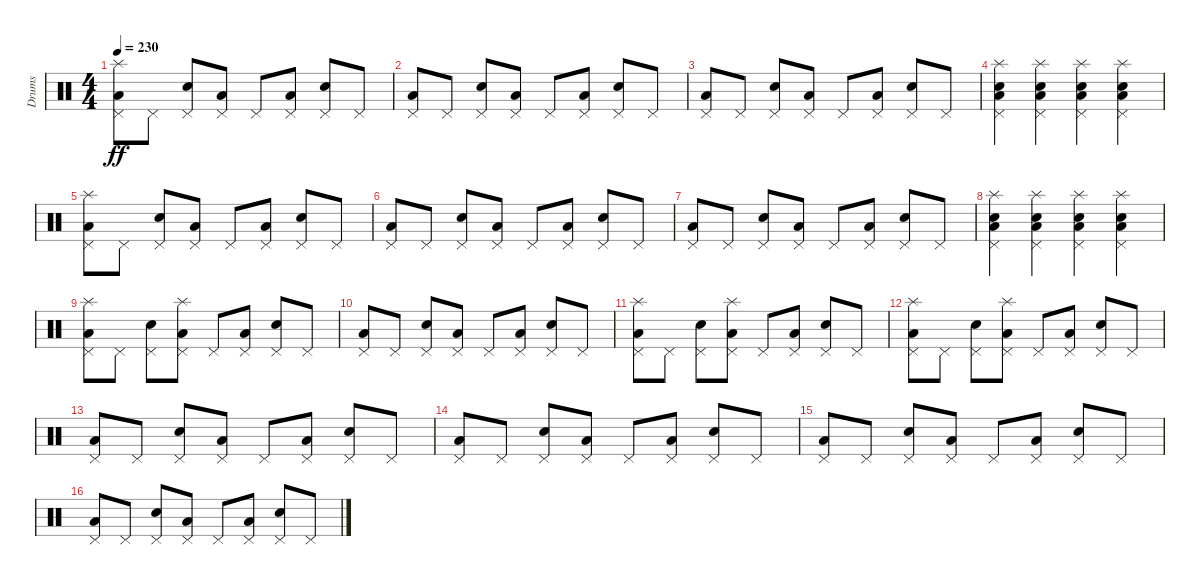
\track ("Drums" "Drums") {instrument percussion}
\staff {score}
\articulation defaults
\ts (4 4)
\tempo 230
\clef neutral
\ks c
("Low Floor Tom (hit)" "Pedal Hi-Hat (hit)" "Splash (hit)").8{dy ff} "Pedal Hi-Hat (hit)".8 ("Electric Snare (hit)" "Pedal Hi-Hat (hit)").8 ("Low Floor Tom (hit)" "Pedal Hi-Hat (hit)").8 "Pedal Hi-Hat (hit)".8 ("Low Floor Tom (hit)" "Pedal Hi-Hat (hit)").8 ("Electric Snare (hit)" "Pedal Hi-Hat (hit)").8 "Pedal Hi-Hat (hit)".8 |
("Low Floor Tom (hit)" "Pedal Hi-Hat (hit)").8 "Pedal Hi-Hat (hit)".8 ("Electric Snare (hit)" "Pedal Hi-Hat (hit)").8 ("Low Floor Tom (hit)" "Pedal Hi-Hat (hit)").8 "Pedal Hi-Hat (hit)".8 ("Low Floor Tom (hit)" "Pedal Hi-Hat (hit)").8 ("Electric Snare (hit)" "Pedal Hi-Hat (hit)").8 "Pedal Hi-Hat (hit)".8 |
("Low Floor Tom (hit)" "Pedal Hi-Hat (hit)").8 "Pedal Hi-Hat (hit)".8 ("Electric Snare (hit)" "Pedal Hi-Hat (hit)").8 ("Low Floor Tom (hit)" "Pedal Hi-Hat (hit)").8 "Pedal Hi-Hat (hit)".8 ("Low Floor Tom (hit)" "Pedal Hi-Hat (hit)").8 ("Electric Snare (hit)" "Pedal Hi-Hat (hit)").8 "Pedal Hi-Hat (hit)".8 |
("Electric Snare (hit)" "Low Floor Tom (hit)" "Pedal Hi-Hat (hit)" "Splash (hit)").4 ("Electric Snare (hit)" "Low Floor Tom (hit)" "Pedal Hi-Hat (hit)" "Splash (hit)").4 ("Electric Snare (hit)" "Low Floor Tom (hit)" "Pedal Hi-Hat (hit)" "Splash (hit)").4 ("Electric Snare (hit)" "Low Floor Tom (hit)" "Pedal Hi-Hat (hit)" "Splash (hit)").4 |
("Low Floor Tom (hit)" "Pedal Hi-Hat (hit)" "Splash (hit)").8 "Pedal Hi-Hat (hit)".8 ("Electric Snare (hit)" "Pedal Hi-Hat (hit)").8 ("Low Floor Tom (hit)" "Pedal Hi-Hat (hit)").8 "Pedal Hi-Hat (hit)".8 ("Low Floor Tom (hit)" "Pedal Hi-Hat (hit)").8 ("Electric Snare (hit)" "Pedal Hi-Hat (hit)").8 "Pedal Hi-Hat (hit)".8 |
("Low Floor Tom (hit)" "Pedal Hi-Hat (hit)").8 "Pedal Hi-Hat (hit)".8 ("Electric Snare (hit)" "Pedal Hi-Hat (hit)").8 ("Low Floor Tom (hit)" "Pedal Hi-Hat (hit)").8 "Pedal Hi-Hat (hit)".8 ("Low Floor Tom (hit)" "Pedal Hi-Hat (hit)").8 ("Electric Snare (hit)" "Pedal Hi-Hat (hit)").8 "Pedal Hi-Hat (hit)".8 |
("Low Floor Tom (hit)" "Pedal Hi-Hat (hit)").8 "Pedal Hi-Hat (hit)".8 ("Electric Snare (hit)" "Pedal Hi-Hat (hit)").8 ("Low Floor Tom (hit)" "Pedal Hi-Hat (hit)").8 "Pedal Hi-Hat (hit)".8 ("Low Floor Tom (hit)" "Pedal Hi-Hat (hit)").8 ("Electric Snare (hit)" "Pedal Hi-Hat (hit)").8 "Pedal Hi-Hat (hit)".8 |
("Electric Snare (hit)" "Low Floor Tom (hit)" "Pedal Hi-Hat (hit)" "Splash (hit)").4 ("Electric Snare (hit)" "Low Floor Tom (hit)" "Pedal Hi-Hat (hit)" "Splash (hit)").4 ("Electric Snare (hit)" "Low Floor Tom (hit)" "Pedal Hi-Hat (hit)" "Splash (hit)").4 ("Electric Snare (hit)" "Low Floor Tom (hit)" "Pedal Hi-Hat (hit)" "Splash (hit)").4 |
("Low Floor Tom (hit)" "Pedal Hi-Hat (hit)" "Splash (hit)").8 "Pedal Hi-Hat (hit)".8 ("Electric Snare (hit)" "Pedal Hi-Hat (hit)").8 ("Low Floor Tom (hit)" "Pedal Hi-Hat (hit)" "Splash (hit)").8 "Pedal Hi-Hat (hit)".8 ("Low Floor Tom (hit)" "Pedal Hi-Hat (hit)").8 ("Electric Snare (hit)" "Pedal Hi-Hat (hit)").8 "Pedal Hi-Hat (hit)".8 |
("Low Floor Tom (hit)" "Pedal Hi-Hat (hit)").8 "Pedal Hi-Hat (hit)".8 ("Electric Snare (hit)" "Pedal Hi-Hat (hit)").8 ("Low Floor Tom (hit)" "Pedal Hi-Hat (hit)").8 "Pedal Hi-Hat (hit)".8 ("Low Floor Tom (hit)" "Pedal Hi-Hat (hit)").8 ("Electric Snare (hit)" "Pedal Hi-Hat (hit)").8 "Pedal Hi-Hat (hit)".8 |
("Low Floor Tom (hit)" "Pedal Hi-Hat (hit)" "Splash (hit)").8 "Pedal Hi-Hat (hit)".8 ("Electric Snare (hit)" "Pedal Hi-Hat (hit)").8 ("Low Floor Tom (hit)" "Pedal Hi-Hat (hit)" "Splash (hit)").8 "Pedal Hi-Hat (hit)".8 ("Low Floor Tom (hit)" "Pedal Hi-Hat (hit)").8 ("Electric Snare (hit)" "Pedal Hi-Hat (hit)").8 "Pedal Hi-Hat (hit)".8 |
("Low Floor Tom (hit)" "Pedal Hi-Hat (hit)" "Splash (hit)").8 "Pedal Hi-Hat (hit)".8 ("Electric Snare (hit)" "Pedal Hi-Hat (hit)").8 ("Low Floor Tom (hit)" "Pedal Hi-Hat (hit)" "Splash (hit)").8 "Pedal Hi-Hat (hit)".8 ("Low Floor Tom (hit)" "Pedal Hi-Hat (hit)").8 ("Electric Snare (hit)" "Pedal Hi-Hat (hit)").8 "Pedal Hi-Hat (hit)".8 |
("Low Floor Tom (hit)" "Pedal Hi-Hat (hit)").8 "Pedal Hi-Hat (hit)".8 ("Electric Snare (hit)" "Pedal Hi-Hat (hit)").8 ("Low Floor Tom (hit)" "Pedal Hi-Hat (hit)").8 "Pedal Hi-Hat (hit)".8 ("Low Floor Tom (hit)" "Pedal Hi-Hat (hit)").8 ("Electric Snare (hit)" "Pedal Hi-Hat (hit)").8 "Pedal Hi-Hat (hit)".8 |
("Low Floor Tom (hit)" "Pedal Hi-Hat (hit)").8 "Pedal Hi-Hat (hit)".8 ("Electric Snare (hit)" "Pedal Hi-Hat (hit)").8 ("Low Floor Tom (hit)" "Pedal Hi-Hat (hit)").8 "Pedal Hi-Hat (hit)".8 ("Low Floor Tom (hit)" "Pedal Hi-Hat (hit)").8 ("Electric Snare (hit)" "Pedal Hi-Hat (hit)").8 "Pedal Hi-Hat (hit)".8 |
("Low Floor Tom (hit)" "Pedal Hi-Hat (hit)").8 "Pedal Hi-Hat (hit)".8 ("Electric Snare (hit)" "Pedal Hi-Hat (hit)").8 ("Low Floor Tom (hit)" "Pedal Hi-Hat (hit)").8 "Pedal Hi-Hat (hit)".8 ("Low Floor Tom (hit)" "Pedal Hi-Hat (hit)").8 ("Electric Snare (hit)" "Pedal Hi-Hat (hit)").8 "Pedal Hi-Hat (hit)".8 |
("Low Floor Tom (hit)" "Pedal Hi-Hat (hit)").8 "Pedal Hi-Hat (hit)".8 ("Electric Snare (hit)" "Pedal Hi-Hat (hit)").8 ("Low Floor Tom (hit)" "Pedal Hi-Hat (hit)").8 "Pedal Hi-Hat (hit)".8 ("Low Floor Tom (hit)" "Pedal Hi-Hat (hit)").8 ("Electric Snare (hit)" "Pedal Hi-Hat (hit)").8 "Pedal Hi-Hat (hit)".8
